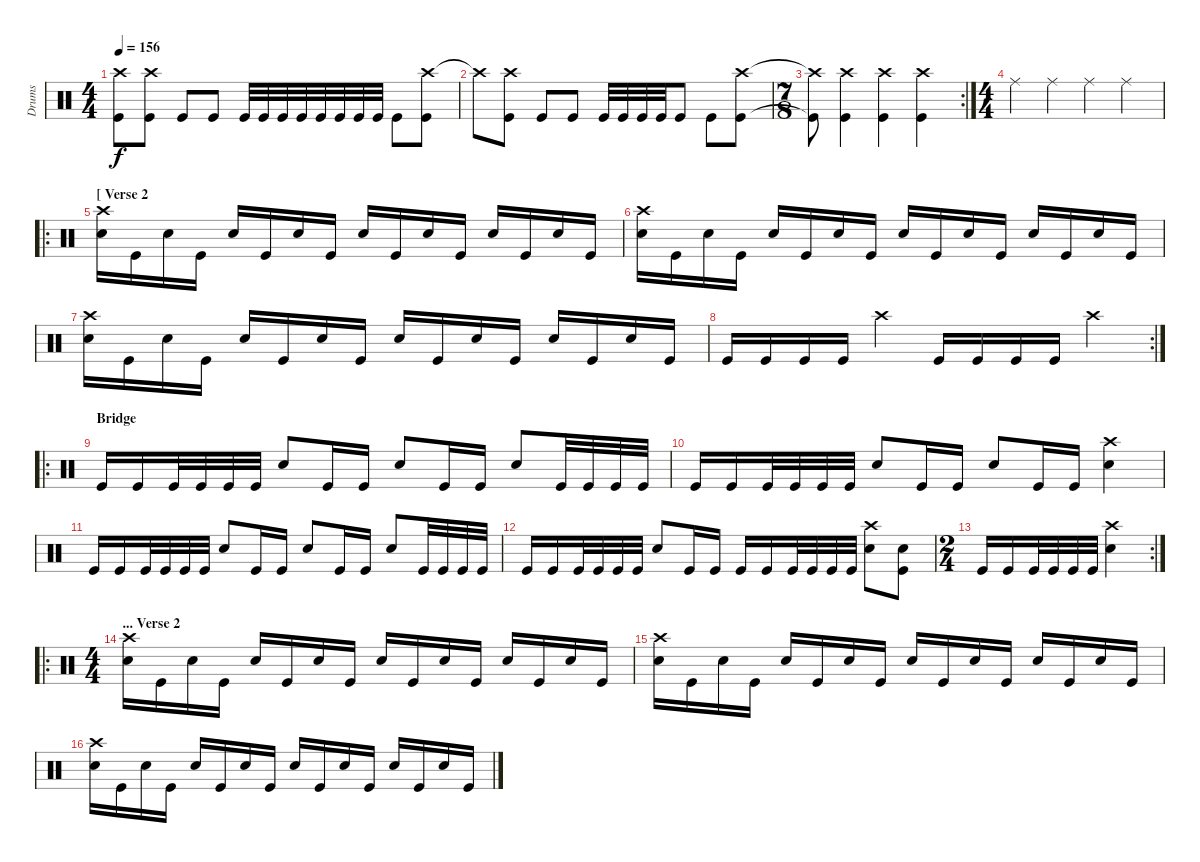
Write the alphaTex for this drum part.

\track ("Drums" "Drums") {instrument percussion}
\staff {score}
\articulation defaults
\ts (4 4)
\tempo 156
\clef neutral
\ks c
("Crash high (hit)"{t} "Kick (hit)"{t}).8{dy f} ("Crash high (hit)" "Kick (hit)").8 "Kick (hit)".8 "Kick (hit)".8 "Kick (hit)".32 "Kick (hit)".32 "Kick (hit)".32 "Kick (hit)".32 "Kick (hit)".32 "Kick (hit)".32 "Kick (hit)".32 "Kick (hit)".32 "Kick (hit)".8 ("Crash high (hit)" "Kick (hit)").8 |
"Crash high (hit)"{t}.8 ("Crash high (hit)" "Kick (hit)").8 "Kick (hit)".8 "Kick (hit)".8 "Kick (hit)".32 "Kick (hit)".32 "Kick (hit)".32 "Kick (hit)".32 "Kick (hit)".8 "Kick (hit)".8 ("Crash high (hit)" "Kick (hit)").8 |
\rc 2
\ts (7 8)
("Crash high (hit)"{t} "Kick (hit)"{t}).8 ("Crash high (hit)" "Kick (hit)").4 ("Crash high (hit)" "Kick (hit)").4 ("Crash high (hit)" "Kick (hit)").4 |
\ts (4 4)
"Ride (middle)".4 "Ride (middle)".4 "Ride (middle)".4 "Ride (middle)".4 |
\ro
\section ("" "[ Verse 2")
("Crash high (hit)" "Electric Snare (hit)").16 "Kick (hit)".16 "Electric Snare (hit)".16 "Kick (hit)".16 "Electric Snare (hit)".16 "Kick (hit)".16 "Electric Snare (hit)".16 "Kick (hit)".16 "Electric Snare (hit)".16 "Kick (hit)".16 "Electric Snare (hit)".16 "Kick (hit)".16 "Electric Snare (hit)".16 "Kick (hit)".16 "Electric Snare (hit)".16 "Kick (hit)".16 |
("Crash high (hit)" "Electric Snare (hit)").16 "Kick (hit)".16 "Electric Snare (hit)".16 "Kick (hit)".16 "Electric Snare (hit)".16 "Kick (hit)".16 "Electric Snare (hit)".16 "Kick (hit)".16 "Electric Snare (hit)".16 "Kick (hit)".16 "Electric Snare (hit)".16 "Kick (hit)".16 "Electric Snare (hit)".16 "Kick (hit)".16 "Electric Snare (hit)".16 "Kick (hit)".16 |
("Crash high (hit)" "Electric Snare (hit)").16 "Kick (hit)".16 "Electric Snare (hit)".16 "Kick (hit)".16 "Electric Snare (hit)".16 "Kick (hit)".16 "Electric Snare (hit)".16 "Kick (hit)".16 "Electric Snare (hit)".16 "Kick (hit)".16 "Electric Snare (hit)".16 "Kick (hit)".16 "Electric Snare (hit)".16 "Kick (hit)".16 "Electric Snare (hit)".16 "Kick (hit)".16 |
\rc 2 "Kick (hit)".16 "Kick (hit)".16 "Kick (hit)".16 "Kick (hit)".16 "Crash high (hit)".4 "Kick (hit)".16 "Kick (hit)".16 "Kick (hit)".16 "Kick (hit)".16 "Crash high (hit)".4
|
\ro
\section ("" "Bridge")
"Kick (hit)".16 "Kick (hit)".16 "Kick (hit)".32 "Kick (hit)".32 "Kick (hit)".32 "Kick (hit)".32 "Electric Snare (hit)".8 "Kick (hit)".16 "Kick (hit)".16 "Electric Snare (hit)".8 "Kick (hit)".16 "Kick (hit)".16 "Electric Snare (hit)".8 "Kick (hit)".32 "Kick (hit)".32 "Kick (hit)".32 "Kick (hit)".32 |
"Kick (hit)".16 "Kick (hit)".16 "Kick (hit)".32 "Kick (hit)".32 "Kick (hit)".32 "Kick (hit)".32 "Electric Snare (hit)".8 "Kick (hit)".16 "Kick (hit)".16 "Electric Snare (hit)".8 "Kick (hit)".16 "Kick (hit)".16 ("Crash high (hit)" "Electric Snare (hit)").4 |
"Kick (hit)".16 "Kick (hit)".16 "Kick (hit)".32 "Kick (hit)".32 "Kick (hit)".32 "Kick (hit)".32 "Electric Snare (hit)".8 "Kick (hit)".16 "Kick (hit)".16 "Electric Snare (hit)".8 "Kick (hit)".16 "Kick (hit)".16 "Electric Snare (hit)".8 "Kick (hit)".32 "Kick (hit)".32 "Kick (hit)".32 "Kick (hit)".32 |
"Kick (hit)".16 "Kick (hit)".16 "Kick (hit)".32 "Kick (hit)".32 "Kick (hit)".32 "Kick (hit)".32 "Electric Snare (hit)".8 "Kick (hit)".16 "Kick (hit)".16 "Kick (hit)".16 "Kick (hit)".16 "Kick (hit)".32 "Kick (hit)".32 "Kick (hit)".32 "Kick (hit)".32 ("Crash high (hit)" "Electric Snare (hit)").8 ("Electric Snare (hit)" "Kick (hit)").8 |
\rc 2
\ts (2 4)
"Kick (hit)".16 "Kick (hit)".16 "Kick (hit)".32 "Kick (hit)".32 "Kick (hit)".32 "Kick (hit)".32 ("Crash high (hit)" "Electric Snare (hit)").4 |
\ro
\ts (4 4)
\section ("" "... Verse 2")
("Crash high (hit)" "Electric Snare (hit)").16 "Kick (hit)".16 "Electric Snare (hit)".16 "Kick (hit)".16 "Electric Snare (hit)".16 "Kick (hit)".16 "Electric Snare (hit)".16 "Kick (hit)".16 "Electric Snare (hit)".16 "Kick (hit)".16 "Electric Snare (hit)".16 "Kick (hit)".16 "Electric Snare (hit)".16 "Kick (hit)".16 "Electric Snare (hit)".16 "Kick (hit)".16 |
("Crash high (hit)" "Electric Snare (hit)").16 "Kick (hit)".16 "Electric Snare (hit)".16 "Kick (hit)".16 "Electric Snare (hit)".16 "Kick (hit)".16 "Electric Snare (hit)".16 "Kick (hit)".16 "Electric Snare (hit)".16 "Kick (hit)".16 "Electric Snare (hit)".16 "Kick (hit)".16 "Electric Snare (hit)".16 "Kick (hit)".16 "Electric Snare (hit)".16 "Kick (hit)".16 |
("Crash high (hit)" "Electric Snare (hit)").16 "Kick (hit)".16 "Electric Snare (hit)".16 "Kick (hit)".16 "Electric Snare (hit)".16 "Kick (hit)".16 "Electric Snare (hit)".16 "Kick (hit)".16 "Electric Snare (hit)".16 "Kick (hit)".16 "Electric Snare (hit)".16 "Kick (hit)".16 "Electric Snare (hit)".16 "Kick (hit)".16 "Electric Snare (hit)".16 "Kick (hit)".16
